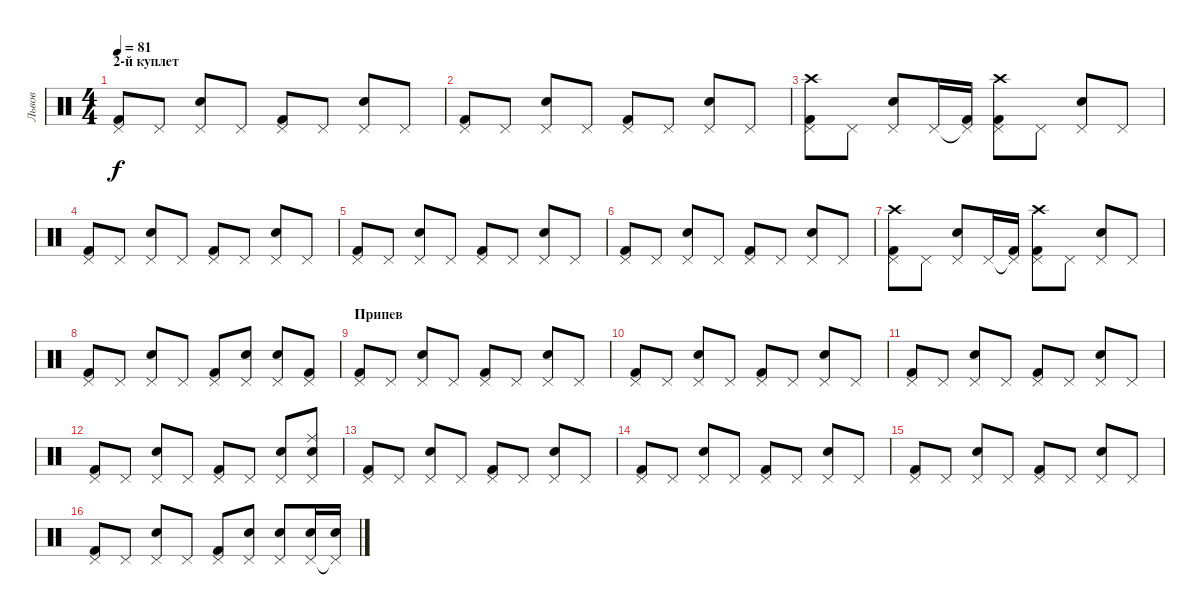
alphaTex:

\track ("Львов" "Львов") {instrument percussion}
\staff {score}
\articulation defaults
\ts (4 4)
\section ("" "2-й куплет")
\tempo 81
\clef neutral
\ks c
("Pedal Hi-Hat (hit)" "Kick (hit) 2").8{dy f} "Pedal Hi-Hat (hit)".8 ("Pedal Hi-Hat (hit)" "Snare (hit) 2").8 "Pedal Hi-Hat (hit)".8 ("Pedal Hi-Hat (hit)" "Kick (hit) 2").8 "Pedal Hi-Hat (hit)".8 ("Pedal Hi-Hat (hit)" "Snare (hit) 2").8 "Pedal Hi-Hat (hit)".8 |
("Pedal Hi-Hat (hit)" "Kick (hit) 2").8 "Pedal Hi-Hat (hit)".8 ("Pedal Hi-Hat (hit)" "Snare (hit) 2").8 "Pedal Hi-Hat (hit)".8 ("Pedal Hi-Hat (hit)" "Kick (hit) 2").8 "Pedal Hi-Hat (hit)".8 ("Pedal Hi-Hat (hit)" "Snare (hit) 2").8 "Pedal Hi-Hat (hit)".8 |
("Pedal Hi-Hat (hit)" "Crash high (hit)" "Kick (hit) 2").8 "Pedal Hi-Hat (hit)".8 ("Pedal Hi-Hat (hit)" "Snare (hit) 2").8 "Pedal Hi-Hat (hit)".16 ("Pedal Hi-Hat (hit)"{t} "Kick (hit) 2").16 ("Pedal Hi-Hat (hit)" "Crash high (hit)" "Kick (hit) 2").8 "Pedal Hi-Hat (hit)".8 ("Pedal Hi-Hat (hit)" "Snare (hit) 2").8 "Pedal Hi-Hat (hit)".8 |
("Pedal Hi-Hat (hit)" "Kick (hit) 2").8 "Pedal Hi-Hat (hit)".8 ("Pedal Hi-Hat (hit)" "Snare (hit) 2").8 "Pedal Hi-Hat (hit)".8 ("Pedal Hi-Hat (hit)" "Kick (hit) 2").8 "Pedal Hi-Hat (hit)".8 ("Pedal Hi-Hat (hit)" "Snare (hit) 2").8 "Pedal Hi-Hat (hit)".8 |
("Pedal Hi-Hat (hit)" "Kick (hit) 2").8 "Pedal Hi-Hat (hit)".8 ("Pedal Hi-Hat (hit)" "Snare (hit) 2").8 "Pedal Hi-Hat (hit)".8 ("Pedal Hi-Hat (hit)" "Kick (hit) 2").8 "Pedal Hi-Hat (hit)".8 ("Pedal Hi-Hat (hit)" "Snare (hit) 2").8 "Pedal Hi-Hat (hit)".8 |
("Pedal Hi-Hat (hit)" "Kick (hit) 2").8 "Pedal Hi-Hat (hit)".8 ("Pedal Hi-Hat (hit)" "Snare (hit) 2").8 "Pedal Hi-Hat (hit)".8 ("Pedal Hi-Hat (hit)" "Kick (hit) 2").8 "Pedal Hi-Hat (hit)".8 ("Pedal Hi-Hat (hit)" "Snare (hit) 2").8 "Pedal Hi-Hat (hit)".8 |
("Pedal Hi-Hat (hit)" "Crash high (hit)" "Kick (hit) 2").8 "Pedal Hi-Hat (hit)".8 ("Pedal Hi-Hat (hit)" "Snare (hit) 2").8 "Pedal Hi-Hat (hit)".16 ("Pedal Hi-Hat (hit)"{t} "Kick (hit) 2").16 ("Pedal Hi-Hat (hit)" "Crash high (hit)" "Kick (hit) 2").8 "Pedal Hi-Hat (hit)".8 ("Pedal Hi-Hat (hit)" "Snare (hit) 2").8 "Pedal Hi-Hat (hit)".8 |
("Pedal Hi-Hat (hit)" "Kick (hit) 2").8 "Pedal Hi-Hat (hit)".8 ("Pedal Hi-Hat (hit)" "Snare (hit) 2").8 "Pedal Hi-Hat (hit)".8 ("Pedal Hi-Hat (hit)" "Kick (hit) 2").8 ("Pedal Hi-Hat (hit)" "Snare (hit) 2").8 ("Pedal Hi-Hat (hit)" "Snare (hit) 2").8 ("Pedal Hi-Hat (hit)" "Kick (hit) 2").8 |
\section ("" "Припев")
("Pedal Hi-Hat (hit)" "Kick (hit) 2").8 "Pedal Hi-Hat (hit)".8 ("Pedal Hi-Hat (hit)" "Snare (hit) 2").8 "Pedal Hi-Hat (hit)".8 ("Pedal Hi-Hat (hit)" "Kick (hit) 2").8 "Pedal Hi-Hat (hit)".8 ("Pedal Hi-Hat (hit)" "Snare (hit) 2").8 "Pedal Hi-Hat (hit)".8 |
("Pedal Hi-Hat (hit)" "Kick (hit) 2").8 "Pedal Hi-Hat (hit)".8 ("Pedal Hi-Hat (hit)" "Snare (hit) 2").8 "Pedal Hi-Hat (hit)".8 ("Pedal Hi-Hat (hit)" "Kick (hit) 2").8 "Pedal Hi-Hat (hit)".8 ("Pedal Hi-Hat (hit)" "Snare (hit) 2").8 "Pedal Hi-Hat (hit)".8 |
("Pedal Hi-Hat (hit)" "Kick (hit) 2").8 "Pedal Hi-Hat (hit)".8 ("Pedal Hi-Hat (hit)" "Snare (hit) 2").8 "Pedal Hi-Hat (hit)".8 ("Pedal Hi-Hat (hit)" "Kick (hit) 2").8 "Pedal Hi-Hat (hit)".8 ("Pedal Hi-Hat (hit)" "Snare (hit) 2").8 "Pedal Hi-Hat (hit)".8 |
("Pedal Hi-Hat (hit)" "Kick (hit) 2").8 "Pedal Hi-Hat (hit)".8 ("Pedal Hi-Hat (hit)" "Snare (hit) 2").8 "Pedal Hi-Hat (hit)".8 ("Pedal Hi-Hat (hit)" "Kick (hit) 2").8 "Pedal Hi-Hat (hit)".8 ("Pedal Hi-Hat (hit)" "Snare (hit) 2").8 ("Pedal Hi-Hat (hit)" "Ride (middle)" "Snare (hit) 2").8 |
("Pedal Hi-Hat (hit)" "Kick (hit) 2").8 "Pedal Hi-Hat (hit)".8 ("Pedal Hi-Hat (hit)" "Snare (hit) 2").8 "Pedal Hi-Hat (hit)".8 ("Pedal Hi-Hat (hit)" "Kick (hit) 2").8 "Pedal Hi-Hat (hit)".8 ("Pedal Hi-Hat (hit)" "Snare (hit) 2").8 "Pedal Hi-Hat (hit)".8 |
("Pedal Hi-Hat (hit)" "Kick (hit) 2").8 "Pedal Hi-Hat (hit)".8 ("Pedal Hi-Hat (hit)" "Snare (hit) 2").8 "Pedal Hi-Hat (hit)".8 ("Pedal Hi-Hat (hit)" "Kick (hit) 2").8 "Pedal Hi-Hat (hit)".8 ("Pedal Hi-Hat (hit)" "Snare (hit) 2").8 "Pedal Hi-Hat (hit)".8 |
("Pedal Hi-Hat (hit)" "Kick (hit) 2").8 "Pedal Hi-Hat (hit)".8 ("Pedal Hi-Hat (hit)" "Snare (hit) 2").8 "Pedal Hi-Hat (hit)".8 ("Pedal Hi-Hat (hit)" "Kick (hit) 2").8 "Pedal Hi-Hat (hit)".8 ("Pedal Hi-Hat (hit)" "Snare (hit) 2").8 "Pedal Hi-Hat (hit)".8 |
("Pedal Hi-Hat (hit)" "Kick (hit) 2").8 "Pedal Hi-Hat (hit)".8 ("Pedal Hi-Hat (hit)" "Snare (hit) 2").8 "Pedal Hi-Hat (hit)".8 ("Pedal Hi-Hat (hit)" "Kick (hit) 2").8 ("Pedal Hi-Hat (hit)" "Snare (hit) 2").8 ("Pedal Hi-Hat (hit)" "Snare (hit) 2").8 ("Pedal Hi-Hat (hit)" "Snare (hit) 2").16 ("Pedal Hi-Hat (hit)"{t} "Snare (hit) 2").16
